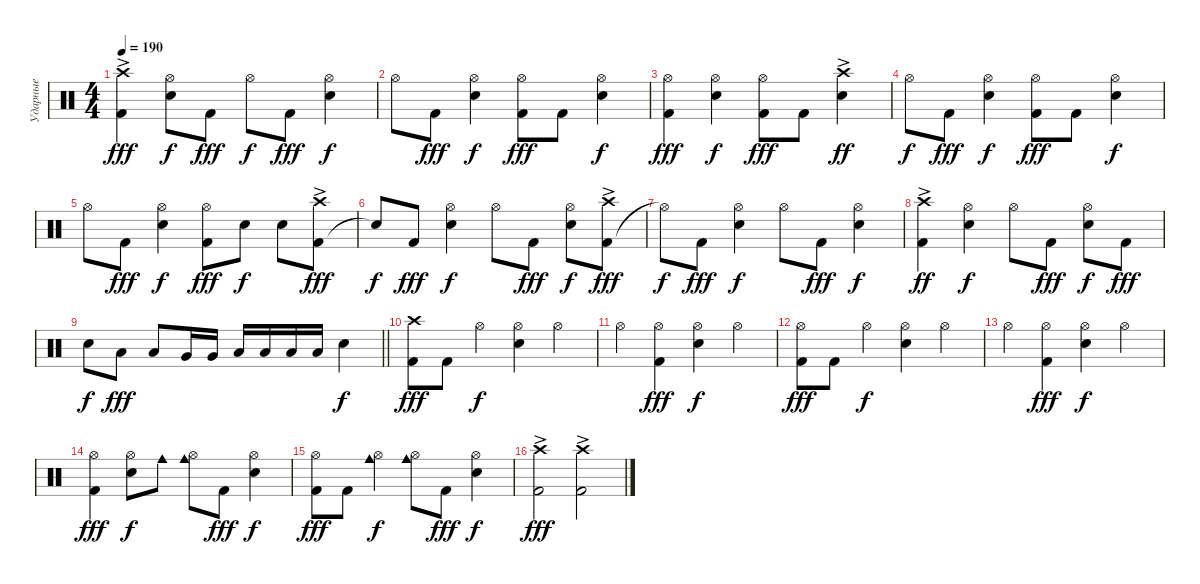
\track ("Ударные" "Ударные") {instrument percussion}
\staff {score}
\articulation defaults
\ts (4 4)
\tempo 190
\clef neutral
\ks c
("Kick (hit) 2" "Crash high (hit)"{ac}).4{dy fff} ("Snare (hit) 2" "Hi-Hat (open)").8{dy f} "Kick (hit) 2".8{dy fff} "Hi-Hat (open)".8{dy f} "Kick (hit) 2".8{dy fff} ("Snare (hit) 2" "Hi-Hat (open)").4{dy f} |
"Hi-Hat (open)".8 "Kick (hit) 2".8{dy fff} ("Snare (hit) 2" "Hi-Hat (open)").4{dy f} ("Kick (hit) 2" "Hi-Hat (open)").8{dy fff} "Kick (hit) 2".8 ("Snare (hit) 2" "Hi-Hat (open)").4{dy f} |
("Kick (hit) 2" "Hi-Hat (open)").4{dy fff} ("Snare (hit) 2" "Hi-Hat (open)").4{dy f} ("Kick (hit) 2" "Hi-Hat (open)").8{dy fff} "Kick (hit) 2".8 ("Snare (hit) 2" "Crash high (hit)"{ac}).4{dy ff} |
"Hi-Hat (open)".8{dy f} "Kick (hit) 2".8{dy fff} ("Snare (hit) 2" "Hi-Hat (open)").4{dy f} ("Kick (hit) 2" "Hi-Hat (open)").8{dy fff} "Kick (hit) 2".8 ("Snare (hit) 2" "Hi-Hat (open)").4{dy f} |
"Hi-Hat (open)".8 "Kick (hit) 2".8{dy fff} ("Snare (hit) 2" "Hi-Hat (open)").4{dy f} ("Kick (hit) 2" "Hi-Hat (open)").8{dy fff} "Snare (hit) 2".8{dy f} "Snare (hit) 2".8 ("Kick (hit) 2" "Crash high (hit)"{ac}).8{dy fff} |
"Snare (hit)"{t}.8{dy f} "Kick (hit) 2".8{dy fff} ("Snare (hit) 2" "Hi-Hat (open)").4{dy f} "Hi-Hat (open)".8 "Kick (hit) 2".8{dy fff} ("Snare (hit) 2" "Hi-Hat (open)").8{dy f} ("Kick (hit) 2" "Crash high (hit)"{ac}).8{dy fff} |
"Hi-Hat (open)"{t}.8{dy f} "Kick (hit) 2".8{dy fff} ("Snare (hit) 2" "Hi-Hat (open)").4{dy f} "Hi-Hat (open)".8 "Kick (hit) 2".8{dy fff} ("Snare (hit) 2" "Hi-Hat (open)").4{dy f} |
("Kick (hit) 2" "Crash high (hit)"{ac}).4{dy ff} ("Snare (hit) 2" "Hi-Hat (open)").4{dy f} "Hi-Hat (open)".8 "Kick (hit) 2".8{dy fff} ("Snare (hit) 2" "Hi-Hat (open)").8{dy f} "Kick (hit) 2".8{dy fff} |
\barLineRight lightlight "Snare (hit) 2".8{dy f} "Low Tom (hit)".8{dy fff} "Low Tom (hit)".8 "Very Low Tom (hit)".16 "Very Low Tom (hit)".16 "Low Floor Tom (hit)".16 "Low Floor Tom (hit)".16 "Low Floor Tom (hit)".16 "Low Floor Tom (hit)".16 "Snare (hit) 2".4{dy f}
|
("Kick (hit) 2" "Crash high (hit)").8{dy fff} "Kick (hit) 2".8 "Hi-Hat (open)".4{dy f} ("Snare (hit) 2" "Hi-Hat (open)").4 "Hi-Hat (open)".4 |
"Hi-Hat (open)".4 ("Kick (hit) 2" "Hi-Hat (open)").4{dy fff} ("Snare (hit) 2" "Hi-Hat (open)").4{dy f} "Hi-Hat (open)".4 |
("Kick (hit) 2" "Hi-Hat (open)").8{dy fff} "Kick (hit) 2".8 "Hi-Hat (open)".4{dy f} ("Snare (hit) 2" "Hi-Hat (open)").4 "Hi-Hat (open)".4 |
"Hi-Hat (open)".4 ("Kick (hit) 2" "Hi-Hat (open)").4{dy fff} ("Snare (hit) 2" "Hi-Hat (open)").4{dy f} "Hi-Hat (open)".4 |
("Kick (hit) 2" "Hi-Hat (open)").4{dy fff} ("Snare (hit) 2" "Hi-Hat (open)").8{dy f} "Cowbell medium (hit)".8 ("Cowbell medium (hit)" "Hi-Hat (open)").8 "Kick (hit) 2".8{dy fff} ("Snare (hit) 2" "Hi-Hat (open)").4{dy f} |
("Kick (hit) 2" "Hi-Hat (open)").8{dy fff} "Kick (hit) 2".8 ("Cowbell medium (hit)" "Hi-Hat (open)").4{dy f} ("Cowbell medium (hit)" "Hi-Hat (open)").8 "Kick (hit) 2".8{dy fff} ("Snare (hit) 2" "Hi-Hat (open)").4{dy f} |
("Kick (hit) 2" "Crash high (hit)"{ac}).2{dy fff} ("Kick (hit) 2" "Crash high (hit)"{ac}).2
